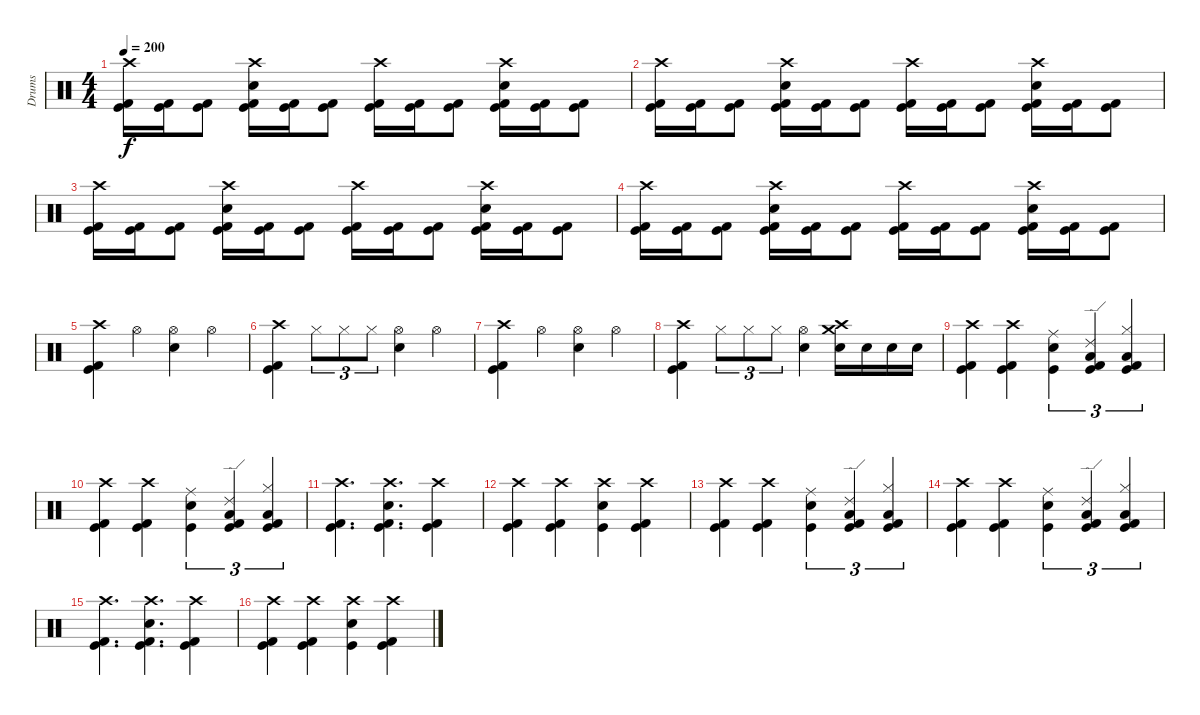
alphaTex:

\track ("Drums" "Drums") {instrument percussion}
\staff {score}
\articulation defaults
\ts (4 4)
\tempo 200
\clef neutral
\ks c
("Crash high (hit)" "Kick (hit) 2" "Kick (hit)").16{dy f} ("Kick (hit) 2" "Kick (hit)").16 ("Kick (hit) 2" "Kick (hit)").8 ("Crash high (hit)" "Electric Snare (hit)" "Kick (hit) 2" "Kick (hit)").16 ("Kick (hit) 2" "Kick (hit)").16 ("Kick (hit) 2" "Kick (hit)").8 ("Crash high (hit)" "Kick (hit) 2" "Kick (hit)").16 ("Kick (hit) 2" "Kick (hit)").16 ("Kick (hit) 2" "Kick (hit)").8 ("Crash high (hit)" "Electric Snare (hit)" "Kick (hit) 2" "Kick (hit)").16 ("Kick (hit) 2" "Kick (hit)").16 ("Kick (hit) 2" "Kick (hit)").8 |
("Crash high (hit)" "Kick (hit) 2" "Kick (hit)").16 ("Kick (hit) 2" "Kick (hit)").16 ("Kick (hit) 2" "Kick (hit)").8 ("Crash high (hit)" "Electric Snare (hit)" "Kick (hit) 2" "Kick (hit)").16 ("Kick (hit) 2" "Kick (hit)").16 ("Kick (hit) 2" "Kick (hit)").8 ("Crash high (hit)" "Kick (hit) 2" "Kick (hit)").16 ("Kick (hit) 2" "Kick (hit)").16 ("Kick (hit) 2" "Kick (hit)").8 ("Crash high (hit)" "Electric Snare (hit)" "Kick (hit) 2" "Kick (hit)").16 ("Kick (hit) 2" "Kick (hit)").16 ("Kick (hit) 2" "Kick (hit)").8 |
("Crash high (hit)" "Kick (hit) 2" "Kick (hit)").16 ("Kick (hit) 2" "Kick (hit)").16 ("Kick (hit) 2" "Kick (hit)").8 ("Crash high (hit)" "Electric Snare (hit)" "Kick (hit) 2" "Kick (hit)").16 ("Kick (hit) 2" "Kick (hit)").16 ("Kick (hit) 2" "Kick (hit)").8 ("Crash high (hit)" "Kick (hit) 2" "Kick (hit)").16 ("Kick (hit) 2" "Kick (hit)").16 ("Kick (hit) 2" "Kick (hit)").8 ("Crash high (hit)" "Electric Snare (hit)" "Kick (hit) 2" "Kick (hit)").16 ("Kick (hit) 2" "Kick (hit)").16 ("Kick (hit) 2" "Kick (hit)").8 |
("Crash high (hit)" "Kick (hit) 2" "Kick (hit)").16 ("Kick (hit) 2" "Kick (hit)").16 ("Kick (hit) 2" "Kick (hit)").8 ("Crash high (hit)" "Electric Snare (hit)" "Kick (hit) 2" "Kick (hit)").16 ("Kick (hit) 2" "Kick (hit)").16 ("Kick (hit) 2" "Kick (hit)").8 ("Crash high (hit)" "Kick (hit) 2" "Kick (hit)").16 ("Kick (hit) 2" "Kick (hit)").16 ("Kick (hit) 2" "Kick (hit)").8 ("Crash high (hit)" "Electric Snare (hit)" "Kick (hit) 2" "Kick (hit)").16 ("Kick (hit) 2" "Kick (hit)").16 ("Kick (hit) 2" "Kick (hit)").8 |
("Crash high (hit)" "Kick (hit) 2" "Kick (hit)").4 "Hi-Hat (open)".4 ("Hi-Hat (open)" "Electric Snare (hit)").4 "Hi-Hat (open)".4 |
("Crash high (hit)" "Kick (hit) 2" "Kick (hit)").4 "Hi-Hat (closed)".8{tu (3 2)} "Hi-Hat (closed)".8{tu (3 2)} "Hi-Hat (closed)".8{tu (3 2)} ("Hi-Hat (open)" "Electric Snare (hit)").4 "Hi-Hat (open)".4 |
("Crash high (hit)" "Kick (hit) 2" "Kick (hit)").4 "Hi-Hat (open)".4 ("Hi-Hat (open)" "Electric Snare (hit)").4 "Hi-Hat (open)".4 |
("Crash high (hit)" "Kick (hit) 2" "Kick (hit)").4 "Hi-Hat (closed)".8{tu (3 2)} "Hi-Hat (closed)".8{tu (3 2)} "Hi-Hat (closed)".8{tu (3 2)} ("Hi-Hat (open)" "Electric Snare (hit)").4 ("Crash medium (hit)" "Electric Snare (hit)" "Crash high (hit)").16 "Electric Snare (hit)".16 "Electric Snare (hit)".16 "Electric Snare (hit)".16 |
("Crash high (hit)" "Kick (hit)" "Kick (hit) 2").4 ("Crash high (hit)" "Kick (hit)" "Kick (hit) 2").4 ("Ride (middle)" "Electric Snare (hit)" "Kick (hit)").4{tu (3 2)} ("Ride (edge) 2" "Low Tom (hit)" "Kick (hit)" "Kick (hit) 2").4{tu (3 2)} ("Hi-Hat (closed)" "Low Floor Tom (hit)" "Kick (hit)" "Kick (hit) 2").4{tu (3 2)} |
("Crash high (hit)" "Kick (hit)" "Kick (hit) 2").4 ("Crash high (hit)" "Kick (hit)" "Kick (hit) 2").4 ("Ride (middle)" "Electric Snare (hit)" "Kick (hit)").4{tu (3 2)} ("Ride (edge) 2" "Low Tom (hit)" "Kick (hit)" "Kick (hit) 2").4{tu (3 2)} ("Hi-Hat (closed)" "Low Floor Tom (hit)" "Kick (hit)" "Kick (hit) 2").4{tu (3 2)} |
("Crash high (hit)" "Kick (hit) 2" "Kick (hit)").4{d} ("Crash high (hit)" "Electric Snare (hit)" "Kick (hit) 2" "Kick (hit)").4{d} ("Crash high (hit)" "Kick (hit) 2" "Kick (hit)").4 |
("Crash high (hit)" "Kick (hit) 2" "Kick (hit)").4 ("Crash high (hit)" "Kick (hit) 2" "Kick (hit)").4 ("Crash high (hit)" "Electric Snare (hit)" "Kick (hit)").4 ("Crash high (hit)" "Kick (hit) 2" "Kick (hit)").4 |
("Crash high (hit)" "Kick (hit)" "Kick (hit) 2").4 ("Crash high (hit)" "Kick (hit)" "Kick (hit) 2").4 ("Ride (middle)" "Electric Snare (hit)" "Kick (hit)").4{tu (3 2)} ("Ride (edge) 2" "Low Tom (hit)" "Kick (hit)" "Kick (hit) 2").4{tu (3 2)} ("Hi-Hat (closed)" "Low Floor Tom (hit)" "Kick (hit)" "Kick (hit) 2").4{tu (3 2)} |
("Crash high (hit)" "Kick (hit)" "Kick (hit) 2").4 ("Crash high (hit)" "Kick (hit)" "Kick (hit) 2").4 ("Ride (middle)" "Electric Snare (hit)" "Kick (hit)").4{tu (3 2)} ("Ride (edge) 2" "Low Tom (hit)" "Kick (hit)" "Kick (hit) 2").4{tu (3 2)} ("Hi-Hat (closed)" "Low Floor Tom (hit)" "Kick (hit)" "Kick (hit) 2").4{tu (3 2)} |
("Crash high (hit)" "Kick (hit) 2" "Kick (hit)").4{d} ("Crash high (hit)" "Electric Snare (hit)" "Kick (hit) 2" "Kick (hit)").4{d} ("Crash high (hit)" "Kick (hit) 2" "Kick (hit)").4 |
("Crash high (hit)" "Kick (hit) 2" "Kick (hit)").4 ("Crash high (hit)" "Kick (hit) 2" "Kick (hit)").4 ("Crash high (hit)" "Electric Snare (hit)" "Kick (hit)").4 ("Crash high (hit)" "Kick (hit) 2" "Kick (hit)").4
